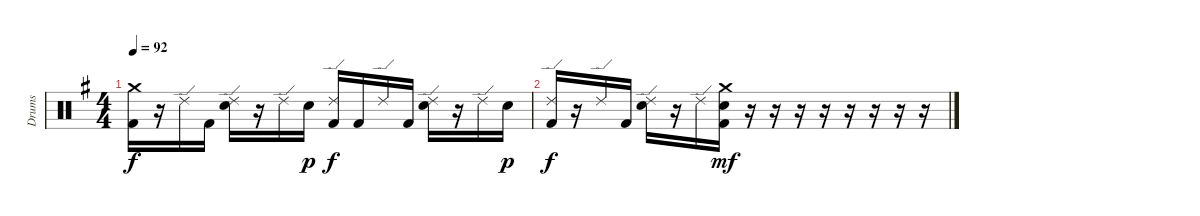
\track ("Drums" "Drums") {instrument percussion}
\staff {score}
\articulation defaults
\ts (4 4)
\tempo 92
\clef neutral
\ks g
("Crash medium (hit)" "Kick (hit) 2").16{dy f} r.16 "Ride (edge) 2".16 "Kick (hit) 2".16 ("Ride (edge) 2" "Snare (hit) 2").16 r.16 "Ride (edge) 2".16 "Snare (hit) 2".16{dy p} ("Ride (edge) 2" "Kick (hit) 2").16{dy f} "Kick (hit) 2".16 "Ride (edge) 2".16 "Kick (hit) 2".16 ("Ride (edge) 2" "Snare (hit) 2").16 r.16 "Ride (edge) 2".16 "Snare (hit) 2".16{dy p} |
("Ride (edge) 2" "Kick (hit) 2").16{dy f} r.16 "Ride (edge) 2".16 "Kick (hit) 2".16 ("Ride (edge) 2" "Snare (hit) 2").16 r.16 "Ride (edge) 2".16 ("Crash medium (hit)" "Snare (hit) 2" "Kick (hit) 2").16{dy mf} r.16 r.16 r.16 r.16 r.16 r.16 r.16 r.16
